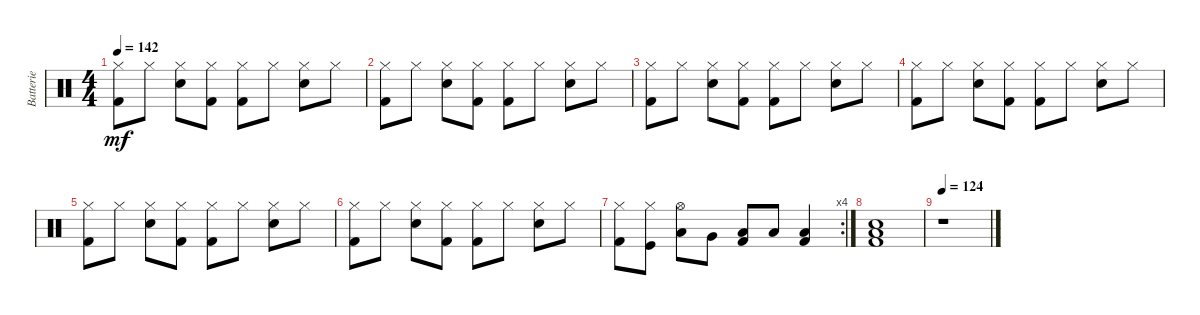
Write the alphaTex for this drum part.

\track ("Batterie" "Batterie") {instrument percussion}
\staff {score}
\articulation defaults
\ts (4 4)
\tempo 142
\clef neutral
\ks c
("Hi-Hat (closed)" "Kick (hit) 2").8{dy mf} "Hi-Hat (closed)".8 ("Hi-Hat (closed)" "Snare (hit) 2").8 ("Hi-Hat (closed)" "Kick (hit) 2").8 ("Hi-Hat (closed)" "Kick (hit) 2").8 "Hi-Hat (closed)".8 ("Hi-Hat (closed)" "Snare (hit) 2").8 "Hi-Hat (closed)".8 |
("Hi-Hat (closed)" "Kick (hit) 2").8 "Hi-Hat (closed)".8 ("Hi-Hat (closed)" "Snare (hit) 2").8 ("Hi-Hat (closed)" "Kick (hit) 2").8 ("Hi-Hat (closed)" "Kick (hit) 2").8 "Hi-Hat (closed)".8 ("Hi-Hat (closed)" "Snare (hit) 2").8 "Hi-Hat (closed)".8 |
("Hi-Hat (closed)" "Kick (hit) 2").8 "Hi-Hat (closed)".8 ("Hi-Hat (closed)" "Snare (hit) 2").8 ("Hi-Hat (closed)" "Kick (hit) 2").8 ("Hi-Hat (closed)" "Kick (hit) 2").8 "Hi-Hat (closed)".8 ("Hi-Hat (closed)" "Snare (hit) 2").8 "Hi-Hat (closed)".8 |
("Hi-Hat (closed)" "Kick (hit) 2").8 "Hi-Hat (closed)".8 ("Hi-Hat (closed)" "Snare (hit) 2").8 ("Hi-Hat (closed)" "Kick (hit) 2").8 ("Hi-Hat (closed)" "Kick (hit) 2").8 "Hi-Hat (closed)".8 ("Hi-Hat (closed)" "Snare (hit) 2").8 "Hi-Hat (closed)".8 |
("Hi-Hat (closed)" "Kick (hit) 2").8 "Hi-Hat (closed)".8 ("Hi-Hat (closed)" "Snare (hit) 2").8 ("Hi-Hat (closed)" "Kick (hit) 2").8 ("Hi-Hat (closed)" "Kick (hit) 2").8 "Hi-Hat (closed)".8 ("Hi-Hat (closed)" "Snare (hit) 2").8 "Hi-Hat (closed)".8 |
("Hi-Hat (closed)" "Kick (hit) 2").8 "Hi-Hat (closed)".8 ("Hi-Hat (closed)" "Snare (hit) 2").8 ("Hi-Hat (closed)" "Kick (hit) 2").8 ("Hi-Hat (closed)" "Kick (hit) 2").8 "Hi-Hat (closed)".8 ("Hi-Hat (closed)" "Snare (hit) 2").8 "Hi-Hat (closed)".8 |
\rc 4
("Hi-Hat (closed)" "Kick (hit) 2").8 ("Hi-Hat (closed)" "Kick (hit)").8 ("Hi-Hat (open)" "Low Tom (hit)").8 "Very Low Tom (hit)".8 ("Low Floor Tom (hit)" "Kick (hit) 2").8 "Low Floor Tom (hit)".8 ("Low Floor Tom (hit)" "Kick (hit) 2").4 |
("Snare (hit) 2" "Low Floor Tom (hit)" "Kick (hit) 2").1 |
\tempo 124
r.1
